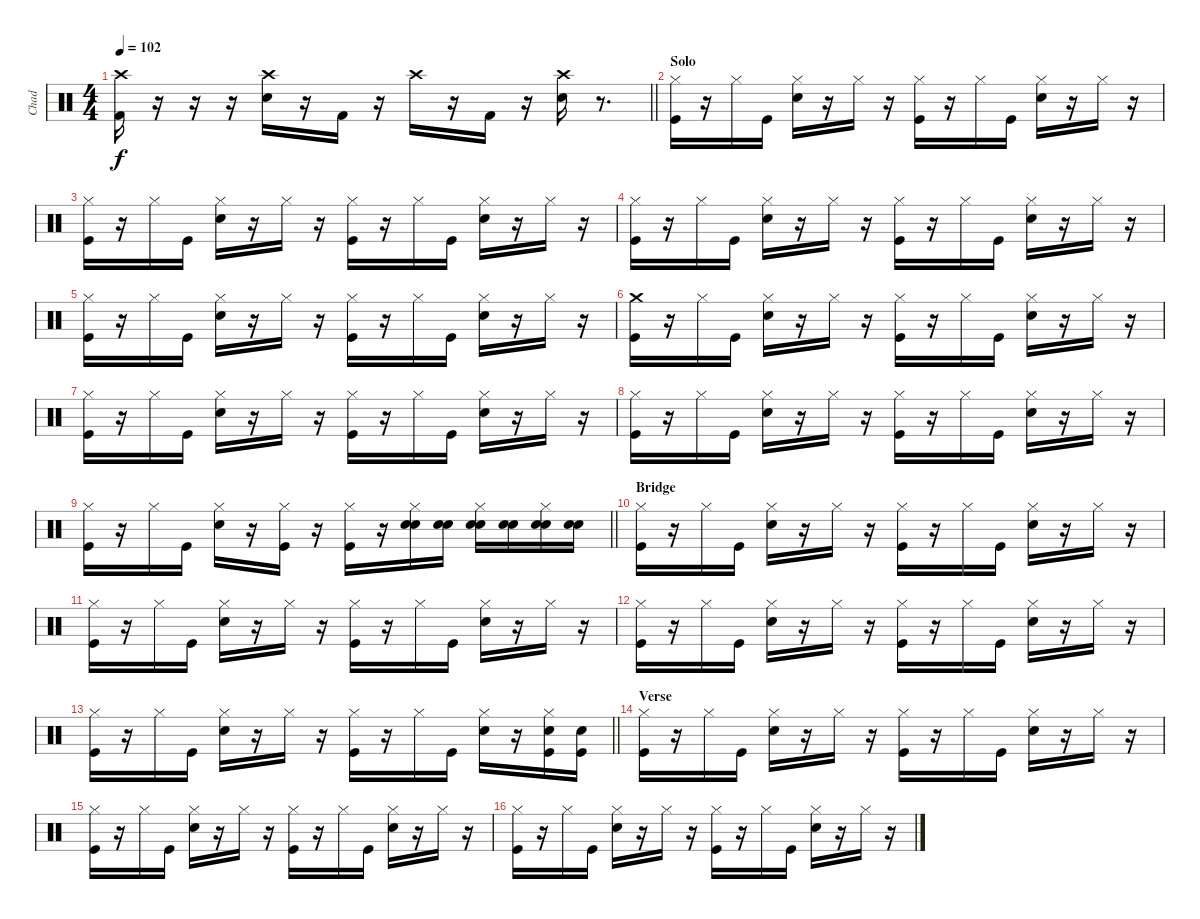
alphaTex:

\track ("Chad" "Chad") {instrument percussion}
\staff {score}
\articulation defaults
\ts (4 4)
\tempo 102
\clef neutral
\barLineRight lightlight
\ks c
("Crash high (hit)" "Kick (hit) 2").16{dy f} r.16 r.16 r.16 ("Crash high (hit)" "Electric Snare (hit)").16 r.16 "Kick (hit) 2".16 r.16 "Crash high (hit)".16 r.16 "Kick (hit) 2".16 r.16 ("Crash high (hit)" "Electric Snare (hit)").16 r.8{d} |
\section ("" "Solo")
("Hi-Hat (closed)" "Kick (hit)").16 r.16 "Hi-Hat (closed)".16 "Kick (hit)".16 ("Hi-Hat (closed)" "Snare (hit) 2").16 r.16 "Hi-Hat (closed)".16 r.16 ("Hi-Hat (closed)" "Kick (hit)").16 r.16 "Hi-Hat (closed)".16 "Kick (hit)".16 ("Hi-Hat (closed)" "Snare (hit) 2").16 r.16 "Hi-Hat (closed)".16 r.16 |
("Hi-Hat (closed)" "Kick (hit)").16 r.16 "Hi-Hat (closed)".16 "Kick (hit)".16 ("Hi-Hat (closed)" "Snare (hit) 2").16 r.16 "Hi-Hat (closed)".16 r.16 ("Hi-Hat (closed)" "Kick (hit)").16 r.16 "Hi-Hat (closed)".16 "Kick (hit)".16 ("Hi-Hat (closed)" "Snare (hit) 2").16 r.16 "Hi-Hat (closed)".16 r.16 |
("Hi-Hat (closed)" "Kick (hit)").16 r.16 "Hi-Hat (closed)".16 "Kick (hit)".16 ("Hi-Hat (closed)" "Snare (hit) 2").16 r.16 "Hi-Hat (closed)".16 r.16 ("Hi-Hat (closed)" "Kick (hit)").16 r.16 "Hi-Hat (closed)".16 "Kick (hit)".16 ("Hi-Hat (closed)" "Snare (hit) 2").16 r.16 "Hi-Hat (closed)".16 r.16 |
("Hi-Hat (closed)" "Kick (hit)").16 r.16 "Hi-Hat (closed)".16 "Kick (hit)".16 ("Hi-Hat (closed)" "Snare (hit) 2").16 r.16 "Hi-Hat (closed)".16 r.16 ("Hi-Hat (closed)" "Kick (hit)").16 r.16 "Hi-Hat (closed)".16 "Kick (hit)".16 ("Hi-Hat (closed)" "Snare (hit) 2").16 r.16 "Hi-Hat (closed)".16 r.16 |
("Crash medium (hit)" "Kick (hit)").16 r.16 "Hi-Hat (closed)".16 "Kick (hit)".16 ("Hi-Hat (closed)" "Snare (hit) 2").16 r.16 "Hi-Hat (closed)".16 r.16 ("Hi-Hat (closed)" "Kick (hit)").16 r.16 "Hi-Hat (closed)".16 "Kick (hit)".16 ("Hi-Hat (closed)" "Snare (hit) 2").16 r.16 "Hi-Hat (closed)".16 r.16 |
("Hi-Hat (closed)" "Kick (hit)").16 r.16 "Hi-Hat (closed)".16 "Kick (hit)".16 ("Hi-Hat (closed)" "Snare (hit) 2").16 r.16 "Hi-Hat (closed)".16 r.16 ("Hi-Hat (closed)" "Kick (hit)").16 r.16 "Hi-Hat (closed)".16 "Kick (hit)".16 ("Hi-Hat (closed)" "Snare (hit) 2").16 r.16 "Hi-Hat (closed)".16 r.16 |
("Hi-Hat (closed)" "Kick (hit)").16 r.16 "Hi-Hat (closed)".16 "Kick (hit)".16 ("Hi-Hat (closed)" "Snare (hit) 2").16 r.16 "Hi-Hat (closed)".16 r.16 ("Hi-Hat (closed)" "Kick (hit)").16 r.16 "Hi-Hat (closed)".16 "Kick (hit)".16 ("Hi-Hat (closed)" "Snare (hit) 2").16 r.16 "Hi-Hat (closed)".16 r.16 |
\barLineRight lightlight
("Hi-Hat (closed)" "Kick (hit)").16 r.16 "Hi-Hat (closed)".16 "Kick (hit)".16 ("Hi-Hat (closed)" "Snare (hit) 2").16 r.16 ("Hi-Hat (closed)" "Kick (hit)").16 r.16 ("Hi-Hat (closed)" "Kick (hit)").16 r.16 ("Hi-Hat (closed)" "Snare (hit) 2" "Electric Snare (hit)").16 ("Snare (hit) 2" "Electric Snare (hit)").16 ("Hi-Hat (closed)" "Snare (hit) 2" "Electric Snare (hit)").16 ("Snare (hit) 2" "Electric Snare (hit)").16 ("Hi-Hat (closed)" "Snare (hit) 2" "Electric Snare (hit)").16 ("Snare (hit) 2" "Electric Snare (hit)").16 |
\section ("" "Bridge")
("Hi-Hat (closed)" "Kick (hit)").16 r.16 "Hi-Hat (closed)".16 "Kick (hit)".16 ("Hi-Hat (closed)" "Snare (hit) 2").16 r.16 "Hi-Hat (closed)".16 r.16 ("Hi-Hat (closed)" "Kick (hit)").16 r.16 "Hi-Hat (closed)".16 "Kick (hit)".16 ("Hi-Hat (closed)" "Snare (hit) 2").16 r.16 "Hi-Hat (closed)".16 r.16 |
("Hi-Hat (closed)" "Kick (hit)").16 r.16 "Hi-Hat (closed)".16 "Kick (hit)".16 ("Hi-Hat (closed)" "Snare (hit) 2").16 r.16 "Hi-Hat (closed)".16 r.16 ("Hi-Hat (closed)" "Kick (hit)").16 r.16 "Hi-Hat (closed)".16 "Kick (hit)".16 ("Hi-Hat (closed)" "Snare (hit) 2").16 r.16 "Hi-Hat (closed)".16 r.16 |
("Hi-Hat (closed)" "Kick (hit)").16 r.16 "Hi-Hat (closed)".16 "Kick (hit)".16 ("Hi-Hat (closed)" "Snare (hit) 2").16 r.16 "Hi-Hat (closed)".16 r.16 ("Hi-Hat (closed)" "Kick (hit)").16 r.16 "Hi-Hat (closed)".16 "Kick (hit)".16 ("Hi-Hat (closed)" "Snare (hit) 2").16 r.16 "Hi-Hat (closed)".16 r.16 |
\barLineRight lightlight
("Hi-Hat (closed)" "Kick (hit)").16 r.16 "Hi-Hat (closed)".16 "Kick (hit)".16 ("Hi-Hat (closed)" "Snare (hit) 2").16 r.16 "Hi-Hat (closed)".16 r.16 ("Hi-Hat (closed)" "Kick (hit)").16 r.16 "Hi-Hat (closed)".16 "Kick (hit)".16 ("Hi-Hat (closed)" "Snare (hit) 2").16 r.16 ("Hi-Hat (closed)" "Snare (hit) 2" "Kick (hit)").16 ("Snare (hit) 2" "Kick (hit)").16 |
\section ("" "Verse")
("Hi-Hat (closed)" "Kick (hit)").16 r.16 "Hi-Hat (closed)".16 "Kick (hit)".16 ("Hi-Hat (closed)" "Snare (hit) 2").16 r.16 "Hi-Hat (closed)".16 r.16 ("Hi-Hat (closed)" "Kick (hit)").16 r.16 "Hi-Hat (closed)".16 "Kick (hit)".16 ("Hi-Hat (closed)" "Snare (hit) 2").16 r.16 "Hi-Hat (closed)".16 r.16 |
("Hi-Hat (closed)" "Kick (hit)").16 r.16 "Hi-Hat (closed)".16 "Kick (hit)".16 ("Hi-Hat (closed)" "Snare (hit) 2").16 r.16 "Hi-Hat (closed)".16 r.16 ("Hi-Hat (closed)" "Kick (hit)").16 r.16 "Hi-Hat (closed)".16 "Kick (hit)".16 ("Hi-Hat (closed)" "Snare (hit) 2").16 r.16 "Hi-Hat (closed)".16 r.16 |
("Hi-Hat (closed)" "Kick (hit)").16 r.16 "Hi-Hat (closed)".16 "Kick (hit)".16 ("Hi-Hat (closed)" "Snare (hit) 2").16 r.16 "Hi-Hat (closed)".16 r.16 ("Hi-Hat (closed)" "Kick (hit)").16 r.16 "Hi-Hat (closed)".16 "Kick (hit)".16 ("Hi-Hat (closed)" "Snare (hit) 2").16 r.16 "Hi-Hat (closed)".16 r.16
